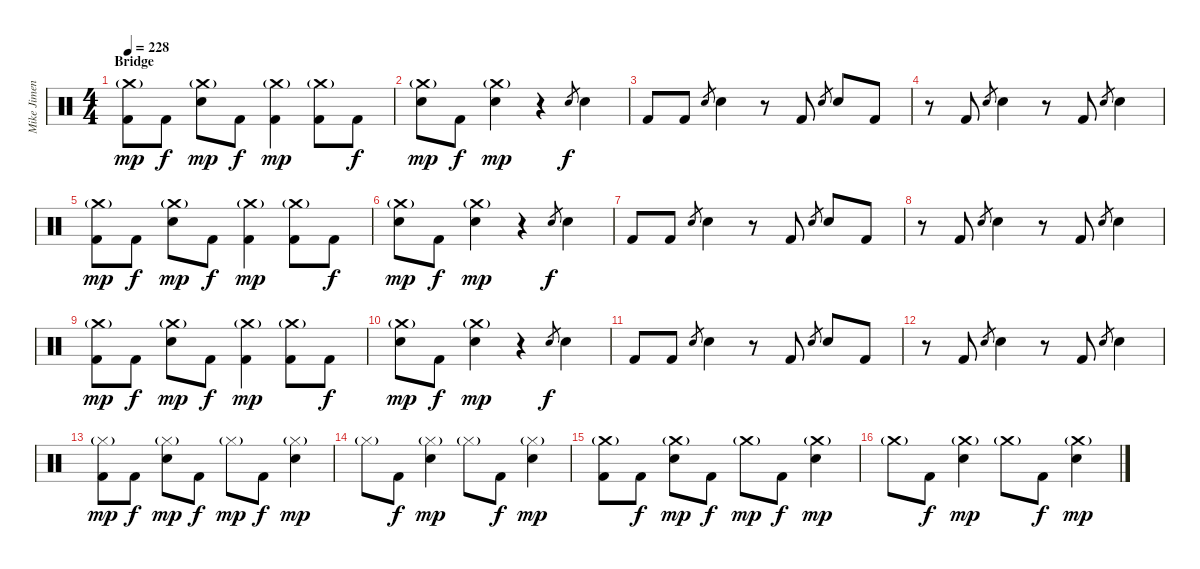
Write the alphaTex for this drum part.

\track ("Mike Jimenez" "Mike Jimen") {instrument percussion}
\staff {score}
\articulation defaults
\ts (4 4)
\section ("" "Bridge")
\tempo 228
\clef neutral
\ks c
("Crash medium (hit)"{g} "Kick (hit) 2").8{dy mp} "Kick (hit) 2".8{dy f} ("Crash medium (hit)"{g} "Electric Snare (hit)").8{dy mp} "Kick (hit) 2".8{dy f} ("Crash medium (hit)"{g} "Kick (hit) 2").4{dy mp} ("Crash medium (hit)"{g} "Kick (hit) 2").8 "Kick (hit) 2".8{dy f} |
("Crash medium (hit)"{g} "Electric Snare (hit)").8{dy mp} "Kick (hit) 2".8{dy f} ("Crash medium (hit)"{g} "Electric Snare (hit)").4{dy mp} r.4 "Electric Snare (hit)".8{gr dy f} "Electric Snare (hit)".4 |
"Kick (hit) 2".8 "Kick (hit) 2".8 "Electric Snare (hit)".8{gr} "Electric Snare (hit)".4 r.8 "Kick (hit) 2".8 "Electric Snare (hit)".8{gr} "Electric Snare (hit)".8 "Kick (hit) 2".8 |
r.8 "Kick (hit) 2".8 "Electric Snare (hit)".8{gr} "Electric Snare (hit)".4 r.8 "Kick (hit) 2".8 "Electric Snare (hit)".8{gr} "Electric Snare (hit)".4 |
("Crash medium (hit)"{g} "Kick (hit) 2").8{dy mp} "Kick (hit) 2".8{dy f} ("Crash medium (hit)"{g} "Electric Snare (hit)").8{dy mp} "Kick (hit) 2".8{dy f} ("Crash medium (hit)"{g} "Kick (hit) 2").4{dy mp} ("Crash medium (hit)"{g} "Kick (hit) 2").8 "Kick (hit) 2".8{dy f} |
("Crash medium (hit)"{g} "Electric Snare (hit)").8{dy mp} "Kick (hit) 2".8{dy f} ("Crash medium (hit)"{g} "Electric Snare (hit)").4{dy mp} r.4 "Electric Snare (hit)".8{gr dy f} "Electric Snare (hit)".4 |
"Kick (hit) 2".8 "Kick (hit) 2".8 "Electric Snare (hit)".8{gr} "Electric Snare (hit)".4 r.8 "Kick (hit) 2".8 "Electric Snare (hit)".8{gr} "Electric Snare (hit)".8 "Kick (hit) 2".8 |
r.8 "Kick (hit) 2".8 "Electric Snare (hit)".8{gr} "Electric Snare (hit)".4 r.8 "Kick (hit) 2".8 "Electric Snare (hit)".8{gr} "Electric Snare (hit)".4 |
("Crash medium (hit)"{g} "Kick (hit) 2").8{dy mp} "Kick (hit) 2".8{dy f} ("Crash medium (hit)"{g} "Electric Snare (hit)").8{dy mp} "Kick (hit) 2".8{dy f} ("Crash medium (hit)"{g} "Kick (hit) 2").4{dy mp} ("Crash medium (hit)"{g} "Kick (hit) 2").8 "Kick (hit) 2".8{dy f} |
("Crash medium (hit)"{g} "Electric Snare (hit)").8{dy mp} "Kick (hit) 2".8{dy f} ("Crash medium (hit)"{g} "Electric Snare (hit)").4{dy mp} r.4 "Electric Snare (hit)".8{gr dy f} "Electric Snare (hit)".4 |
"Kick (hit) 2".8 "Kick (hit) 2".8 "Electric Snare (hit)".8{gr} "Electric Snare (hit)".4 r.8 "Kick (hit) 2".8 "Electric Snare (hit)".8{gr} "Electric Snare (hit)".8 "Kick (hit) 2".8 |
r.8 "Kick (hit) 2".8 "Electric Snare (hit)".8{gr} "Electric Snare (hit)".4 r.8 "Kick (hit) 2".8 "Electric Snare (hit)".8{gr} "Electric Snare (hit)".4 |
("Hi-Hat (closed)"{g} "Kick (hit) 2").8{dy mp} "Kick (hit) 2".8{dy f} ("Hi-Hat (closed)"{g} "Electric Snare (hit)").8{dy mp} "Kick (hit) 2".8{dy f} "Hi-Hat (closed)"{g}.8{dy mp} "Kick (hit) 2".8{dy f} ("Hi-Hat (closed)"{g} "Electric Snare (hit)").4{dy mp} |
"Hi-Hat (closed)"{g}.8 "Kick (hit) 2".8{dy f} ("Hi-Hat (closed)"{g} "Electric Snare (hit)").4{dy mp} "Hi-Hat (closed)"{g}.8 "Kick (hit) 2".8{dy f} ("Hi-Hat (closed)"{g} "Electric Snare (hit)").4{dy mp} |
("Crash medium (hit)"{g} "Kick (hit) 2").8 "Kick (hit) 2".8{dy f} ("Crash medium (hit)"{g} "Electric Snare (hit)").8{dy mp} "Kick (hit) 2".8{dy f} "Crash medium (hit)"{g}.8{dy mp} "Kick (hit) 2".8{dy f} ("Crash medium (hit)"{g} "Electric Snare (hit)").4{dy mp} |
"Crash medium (hit)"{g}.8 "Kick (hit) 2".8{dy f} ("Crash medium (hit)"{g} "Electric Snare (hit)").4{dy mp} "Crash medium (hit)"{g}.8 "Kick (hit) 2".8{dy f} ("Crash medium (hit)"{g} "Electric Snare (hit)").4{dy mp}
